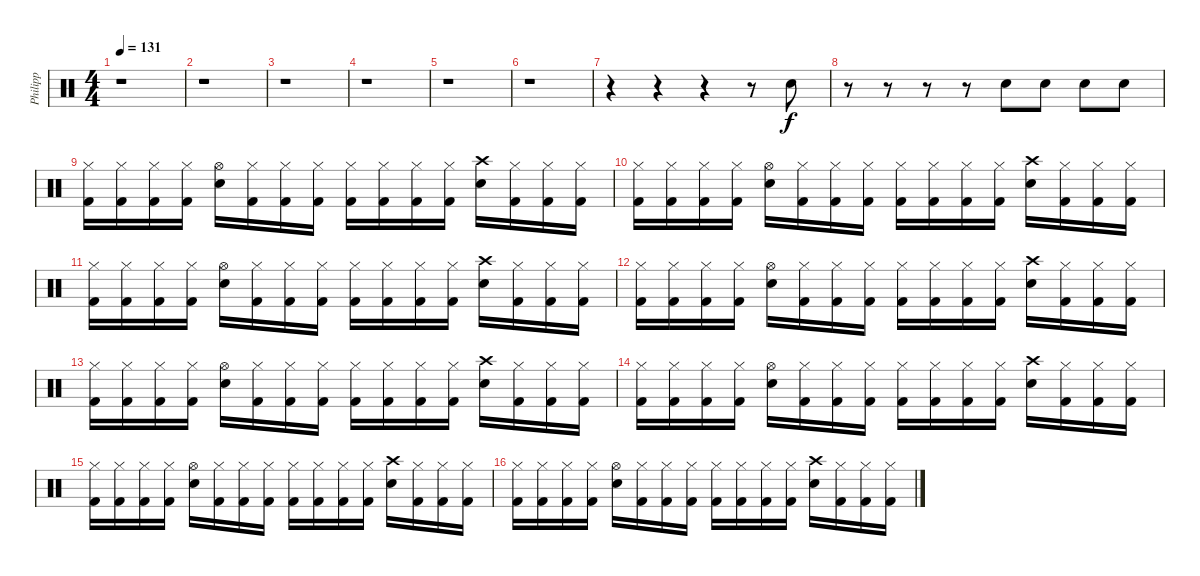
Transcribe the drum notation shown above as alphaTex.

\track ("Philipp" "Philipp") {instrument percussion}
\staff {score}
\articulation defaults
\ts (4 4)
\tempo 131
\clef neutral
\ks c
r.1{dy f} |
r.1 |
r.1 |
r.1 |
r.1 |
r.1 |
r.4 r.4 r.4 r.8 "Electric Snare (hit)".8 |
r.8 r.8 r.8 r.8 "Electric Snare (hit)".8 "Electric Snare (hit)".8 "Electric Snare (hit)".8 "Electric Snare (hit)".8 |
("Hi-Hat (closed)" "Kick (hit) 2").16 ("Hi-Hat (closed)" "Kick (hit) 2").16 ("Hi-Hat (closed)" "Kick (hit) 2").16 ("Hi-Hat (closed)" "Kick (hit) 2").16 ("Hi-Hat (open)" "Electric Snare (hit)").16 ("Hi-Hat (closed)" "Kick (hit) 2").16 ("Hi-Hat (closed)" "Kick (hit) 2").16 ("Hi-Hat (closed)" "Kick (hit) 2").16 ("Hi-Hat (closed)" "Kick (hit) 2").16 ("Hi-Hat (closed)" "Kick (hit) 2").16 ("Hi-Hat (closed)" "Kick (hit) 2").16 ("Hi-Hat (closed)" "Kick (hit) 2").16 ("Crash high (hit)" "Electric Snare (hit)").16 ("Hi-Hat (closed)" "Kick (hit) 2").16 ("Hi-Hat (closed)" "Kick (hit) 2").16 ("Hi-Hat (closed)" "Kick (hit) 2").16 |
("Hi-Hat (closed)" "Kick (hit) 2").16 ("Hi-Hat (closed)" "Kick (hit) 2").16 ("Hi-Hat (closed)" "Kick (hit) 2").16 ("Hi-Hat (closed)" "Kick (hit) 2").16 ("Hi-Hat (open)" "Electric Snare (hit)").16 ("Hi-Hat (closed)" "Kick (hit) 2").16 ("Hi-Hat (closed)" "Kick (hit) 2").16 ("Hi-Hat (closed)" "Kick (hit) 2").16 ("Hi-Hat (closed)" "Kick (hit) 2").16 ("Hi-Hat (closed)" "Kick (hit) 2").16 ("Hi-Hat (closed)" "Kick (hit) 2").16 ("Hi-Hat (closed)" "Kick (hit) 2").16 ("Crash high (hit)" "Electric Snare (hit)").16 ("Hi-Hat (closed)" "Kick (hit) 2").16 ("Hi-Hat (closed)" "Kick (hit) 2").16 ("Hi-Hat (closed)" "Kick (hit) 2").16 |
("Hi-Hat (closed)" "Kick (hit) 2").16 ("Hi-Hat (closed)" "Kick (hit) 2").16 ("Hi-Hat (closed)" "Kick (hit) 2").16 ("Hi-Hat (closed)" "Kick (hit) 2").16 ("Hi-Hat (open)" "Electric Snare (hit)").16 ("Hi-Hat (closed)" "Kick (hit) 2").16 ("Hi-Hat (closed)" "Kick (hit) 2").16 ("Hi-Hat (closed)" "Kick (hit) 2").16 ("Hi-Hat (closed)" "Kick (hit) 2").16 ("Hi-Hat (closed)" "Kick (hit) 2").16 ("Hi-Hat (closed)" "Kick (hit) 2").16 ("Hi-Hat (closed)" "Kick (hit) 2").16 ("Crash high (hit)" "Electric Snare (hit)").16 ("Hi-Hat (closed)" "Kick (hit) 2").16 ("Hi-Hat (closed)" "Kick (hit) 2").16 ("Hi-Hat (closed)" "Kick (hit) 2").16 |
("Hi-Hat (closed)" "Kick (hit) 2").16 ("Hi-Hat (closed)" "Kick (hit) 2").16 ("Hi-Hat (closed)" "Kick (hit) 2").16 ("Hi-Hat (closed)" "Kick (hit) 2").16 ("Hi-Hat (open)" "Electric Snare (hit)").16 ("Hi-Hat (closed)" "Kick (hit) 2").16 ("Hi-Hat (closed)" "Kick (hit) 2").16 ("Hi-Hat (closed)" "Kick (hit) 2").16 ("Hi-Hat (closed)" "Kick (hit) 2").16 ("Hi-Hat (closed)" "Kick (hit) 2").16 ("Hi-Hat (closed)" "Kick (hit) 2").16 ("Hi-Hat (closed)" "Kick (hit) 2").16 ("Crash high (hit)" "Electric Snare (hit)").16 ("Hi-Hat (closed)" "Kick (hit) 2").16 ("Hi-Hat (closed)" "Kick (hit) 2").16 ("Hi-Hat (closed)" "Kick (hit) 2").16 |
("Hi-Hat (closed)" "Kick (hit) 2").16 ("Hi-Hat (closed)" "Kick (hit) 2").16 ("Hi-Hat (closed)" "Kick (hit) 2").16 ("Hi-Hat (closed)" "Kick (hit) 2").16 ("Hi-Hat (open)" "Electric Snare (hit)").16 ("Hi-Hat (closed)" "Kick (hit) 2").16 ("Hi-Hat (closed)" "Kick (hit) 2").16 ("Hi-Hat (closed)" "Kick (hit) 2").16 ("Hi-Hat (closed)" "Kick (hit) 2").16 ("Hi-Hat (closed)" "Kick (hit) 2").16 ("Hi-Hat (closed)" "Kick (hit) 2").16 ("Hi-Hat (closed)" "Kick (hit) 2").16 ("Crash high (hit)" "Electric Snare (hit)").16 ("Hi-Hat (closed)" "Kick (hit) 2").16 ("Hi-Hat (closed)" "Kick (hit) 2").16 ("Hi-Hat (closed)" "Kick (hit) 2").16 |
("Hi-Hat (closed)" "Kick (hit) 2").16 ("Hi-Hat (closed)" "Kick (hit) 2").16 ("Hi-Hat (closed)" "Kick (hit) 2").16 ("Hi-Hat (closed)" "Kick (hit) 2").16 ("Hi-Hat (open)" "Electric Snare (hit)").16 ("Hi-Hat (closed)" "Kick (hit) 2").16 ("Hi-Hat (closed)" "Kick (hit) 2").16 ("Hi-Hat (closed)" "Kick (hit) 2").16 ("Hi-Hat (closed)" "Kick (hit) 2").16 ("Hi-Hat (closed)" "Kick (hit) 2").16 ("Hi-Hat (closed)" "Kick (hit) 2").16 ("Hi-Hat (closed)" "Kick (hit) 2").16 ("Crash high (hit)" "Electric Snare (hit)").16 ("Hi-Hat (closed)" "Kick (hit) 2").16 ("Hi-Hat (closed)" "Kick (hit) 2").16 ("Hi-Hat (closed)" "Kick (hit) 2").16 |
("Hi-Hat (closed)" "Kick (hit) 2").16 ("Hi-Hat (closed)" "Kick (hit) 2").16 ("Hi-Hat (closed)" "Kick (hit) 2").16 ("Hi-Hat (closed)" "Kick (hit) 2").16 ("Hi-Hat (open)" "Electric Snare (hit)").16 ("Hi-Hat (closed)" "Kick (hit) 2").16 ("Hi-Hat (closed)" "Kick (hit) 2").16 ("Hi-Hat (closed)" "Kick (hit) 2").16 ("Hi-Hat (closed)" "Kick (hit) 2").16 ("Hi-Hat (closed)" "Kick (hit) 2").16 ("Hi-Hat (closed)" "Kick (hit) 2").16 ("Hi-Hat (closed)" "Kick (hit) 2").16 ("Crash high (hit)" "Electric Snare (hit)").16 ("Hi-Hat (closed)" "Kick (hit) 2").16 ("Hi-Hat (closed)" "Kick (hit) 2").16 ("Hi-Hat (closed)" "Kick (hit) 2").16 |
("Hi-Hat (closed)" "Kick (hit) 2").16 ("Hi-Hat (closed)" "Kick (hit) 2").16 ("Hi-Hat (closed)" "Kick (hit) 2").16 ("Hi-Hat (closed)" "Kick (hit) 2").16 ("Hi-Hat (open)" "Electric Snare (hit)").16 ("Hi-Hat (closed)" "Kick (hit) 2").16 ("Hi-Hat (closed)" "Kick (hit) 2").16 ("Hi-Hat (closed)" "Kick (hit) 2").16 ("Hi-Hat (closed)" "Kick (hit) 2").16 ("Hi-Hat (closed)" "Kick (hit) 2").16 ("Hi-Hat (closed)" "Kick (hit) 2").16 ("Hi-Hat (closed)" "Kick (hit) 2").16 ("Crash high (hit)" "Electric Snare (hit)").16 ("Hi-Hat (closed)" "Kick (hit) 2").16 ("Hi-Hat (closed)" "Kick (hit) 2").16 ("Hi-Hat (closed)" "Kick (hit) 2").16
